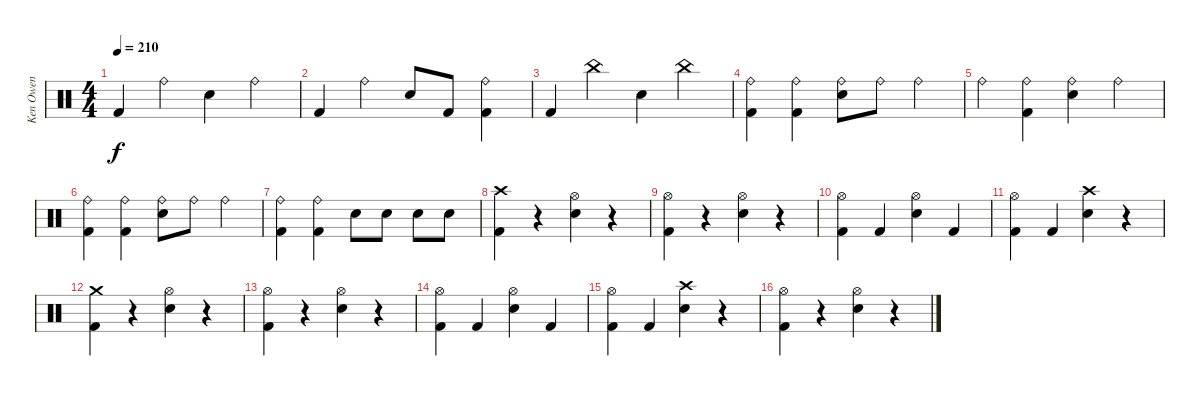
\track ("Ken Owen" "Ken Owen") {instrument percussion}
\staff {score}
\articulation defaults
\ts (4 4)
\tempo 210
\clef neutral
\ks c "Kick (hit) 2".4{dy f} "Ride (bell)".4 "Snare (hit) 2".4 "Ride (bell)".4
|
"Kick (hit) 2".4 "Ride (bell)".4 "Snare (hit) 2".8 "Kick (hit) 2".8 ("Ride (bell)" "Kick (hit) 2").4 |
"Kick (hit) 2".4 "China (hit)".4 "Snare (hit) 2".4 "China (hit)".4 |
("Ride (bell)" "Kick (hit) 2").4 ("Ride (bell)" "Kick (hit) 2").4 ("Ride (bell)" "Snare (hit) 2").8 "Ride (bell)".8 "Ride (bell)".4 |
"Ride (bell)".4 ("Ride (bell)" "Kick (hit) 2").4 ("Ride (bell)" "Snare (hit) 2").4 "Ride (bell)".4 |
("Ride (bell)" "Kick (hit) 2").4 ("Ride (bell)" "Kick (hit) 2").4 ("Ride (bell)" "Snare (hit) 2").8 "Ride (bell)".8 "Ride (bell)".4 |
("Ride (bell)" "Kick (hit) 2").4 ("Ride (bell)" "Kick (hit) 2").4 "Snare (hit) 2".8 "Snare (hit) 2".8 "Snare (hit) 2".8 "Snare (hit) 2".8 |
("Crash high (hit)" "Kick (hit) 2").4 r.4 ("Hi-Hat (open)" "Snare (hit) 2").4 r.4 |
("Hi-Hat (open)" "Kick (hit) 2").4 r.4 ("Hi-Hat (open)" "Snare (hit) 2").4 r.4 |
("Hi-Hat (open)" "Kick (hit) 2").4 "Kick (hit) 2".4 ("Hi-Hat (open)" "Snare (hit) 2").4 "Kick (hit) 2".4 |
("Hi-Hat (open)" "Kick (hit) 2").4 "Kick (hit) 2".4 ("Crash high (hit)" "Snare (hit) 2").4 r.4 |
("Crash medium (hit)" "Kick (hit) 2").4 r.4 ("Hi-Hat (open)" "Snare (hit) 2").4 r.4 |
("Hi-Hat (open)" "Kick (hit) 2").4 r.4 ("Hi-Hat (open)" "Snare (hit) 2").4 r.4 |
("Hi-Hat (open)" "Kick (hit) 2").4 "Kick (hit) 2".4 ("Hi-Hat (open)" "Snare (hit) 2").4 "Kick (hit) 2".4 |
("Hi-Hat (open)" "Kick (hit) 2").4 "Kick (hit) 2".4 ("Crash high (hit)" "Snare (hit) 2").4 r.4 |
("Hi-Hat (open)" "Kick (hit) 2").4 r.4 ("Hi-Hat (open)" "Snare (hit) 2").4 r.4
